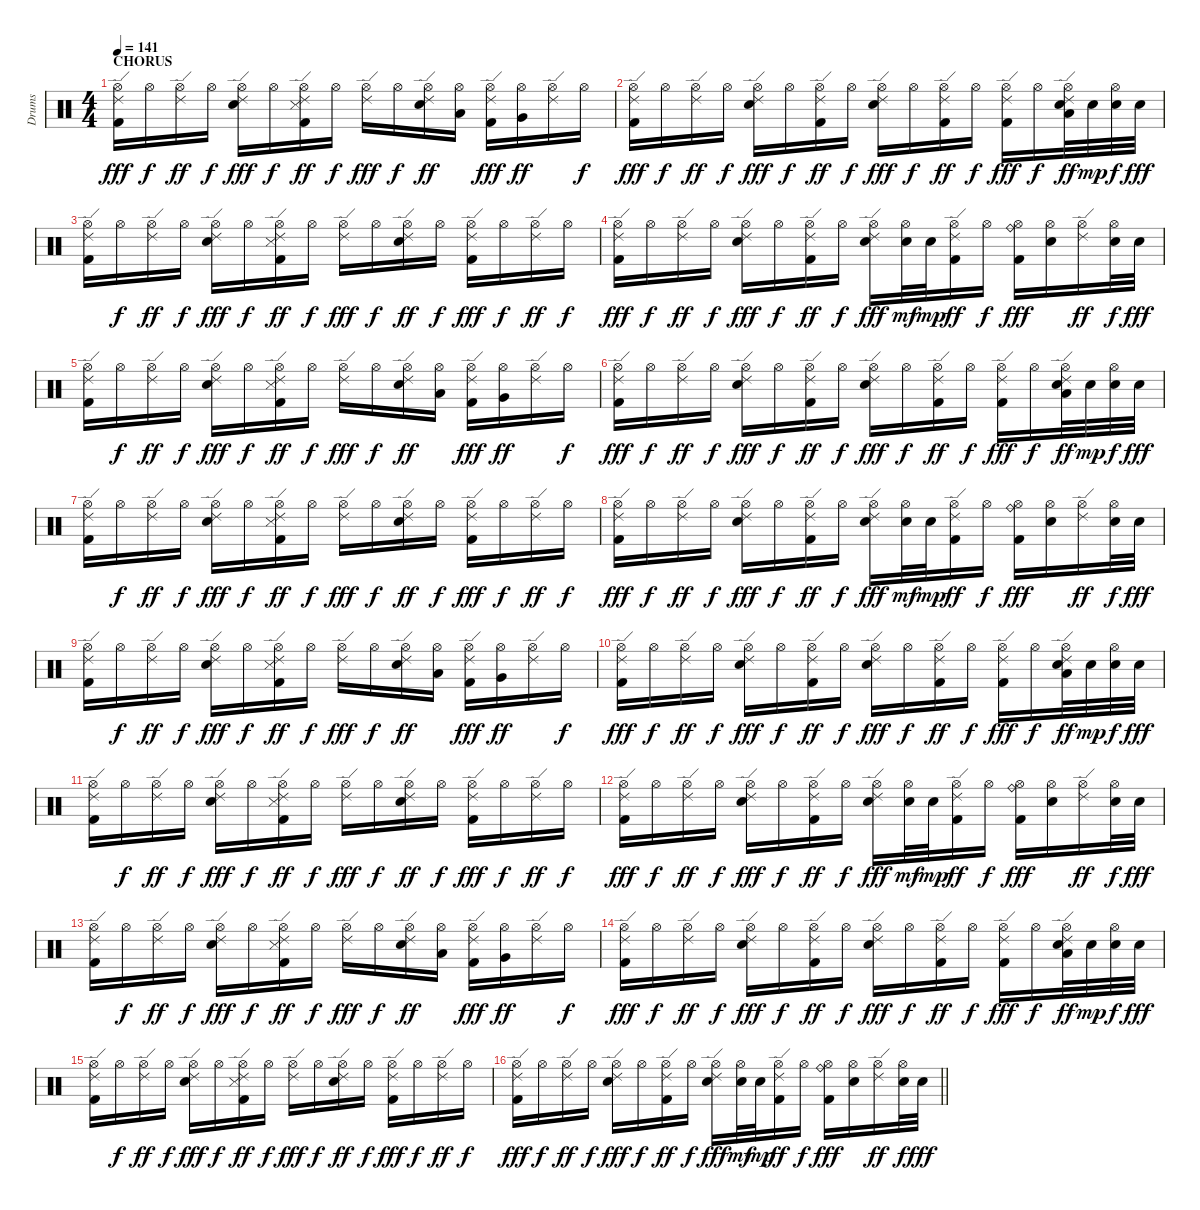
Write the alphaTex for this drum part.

\track ("Drums" "Drums") {instrument percussion}
\staff {score}
\articulation defaults
\ts (4 4)
\section ("" "CHORUS")
\tempo 141
\clef neutral
\ks c
("Kick (hit) 2" "Hi-Hat (open)" "Ride (edge) 2").16{dy fff} "Hi-Hat (open)".16{dy f} ("Hi-Hat (open)" "Ride (edge) 2").16{dy ff} "Hi-Hat (open)".16{dy f} ("Snare (hit) 2" "Hi-Hat (open)" "Ride (edge) 2").16{dy fff} "Hi-Hat (open)".16{dy f} ("Kick (hit) 2" "Snare (side stick) 3" "Hi-Hat (open)" "Ride (edge) 2").16{dy ff} "Hi-Hat (open)".16{dy f} ("Hi-Hat (open)" "Ride (edge) 2").16{dy fff} "Hi-Hat (open)".16{dy f} ("Snare (hit) 2" "Hi-Hat (open)" "Ride (edge) 2").16{dy ff} ("Hi-Hat (open)" "Low Floor Tom (hit)").16 ("Kick (hit) 2" "Hi-Hat (open)" "Ride (edge) 2").16{dy fff} ("Hi-Hat (open)" "Very Low Tom (hit)").16{dy ff} ("Hi-Hat (open)" "Ride (edge) 2").16 "Hi-Hat (open)".16{dy f} |
("Kick (hit) 2" "Hi-Hat (open)" "Ride (edge) 2").16{dy fff} "Hi-Hat (open)".16{dy f} ("Hi-Hat (open)" "Ride (edge) 2").16{dy ff} "Hi-Hat (open)".16{dy f} ("Snare (hit) 2" "Hi-Hat (open)" "Ride (edge) 2").16{dy fff} "Hi-Hat (open)".16{dy f} ("Kick (hit) 2" "Hi-Hat (open)" "Ride (edge) 2").16{dy ff} "Hi-Hat (open)".16{dy f} ("Snare (hit) 2" "Hi-Hat (open)" "Ride (edge) 2").16{dy fff} "Hi-Hat (open)".16{dy f} ("Kick (hit) 2" "Hi-Hat (open)" "Ride (edge) 2").16{dy ff} "Hi-Hat (open)".16{dy f} ("Kick (hit) 2" "Hi-Hat (open)" "Ride (edge) 2").16{dy fff} "Hi-Hat (open)".16{dy f} ("Snare (hit) 2" "Hi-Hat (open)" "Ride (edge) 2" "Low Tom (hit)").32{dy ff} "Snare (hit) 2".32{dy mp} ("Snare (hit) 2" "Hi-Hat (open)").32{dy f} "Snare (hit) 2".32{dy fff} |
("Kick (hit) 2" "Hi-Hat (open)" "Ride (edge) 2").16 "Hi-Hat (open)".16{dy f} ("Hi-Hat (open)" "Ride (edge) 2").16{dy ff} "Hi-Hat (open)".16{dy f} ("Snare (hit) 2" "Hi-Hat (open)" "Ride (edge) 2").16{dy fff} "Hi-Hat (open)".16{dy f} ("Kick (hit) 2" "Snare (side stick) 3" "Hi-Hat (open)" "Ride (edge) 2").16{dy ff} "Hi-Hat (open)".16{dy f} ("Hi-Hat (open)" "Ride (edge) 2").16{dy fff} "Hi-Hat (open)".16{dy f} ("Snare (hit) 2" "Hi-Hat (open)" "Ride (edge) 2").16{dy ff} "Hi-Hat (open)".16{dy f} ("Kick (hit) 2" "Hi-Hat (open)" "Ride (edge) 2").16{dy fff} "Hi-Hat (open)".16{dy f} ("Hi-Hat (open)" "Ride (edge) 2").16{dy ff} "Hi-Hat (open)".16{dy f} |
("Kick (hit) 2" "Hi-Hat (open)" "Ride (edge) 2").16{dy fff} "Hi-Hat (open)".16{dy f} ("Hi-Hat (open)" "Ride (edge) 2").16{dy ff} "Hi-Hat (open)".16{dy f} ("Snare (hit) 2" "Hi-Hat (open)" "Ride (edge) 2").16{dy fff} "Hi-Hat (open)".16{dy f} ("Kick (hit) 2" "Hi-Hat (open)" "Ride (edge) 2").16{dy ff} "Hi-Hat (open)".16{dy f} ("Snare (hit) 2" "Hi-Hat (open)" "Ride (edge) 2").16{dy fff} ("Snare (hit) 2" "Hi-Hat (open)").32{dy mf} "Snare (hit) 2".32{dy mp} ("Kick (hit) 2" "Hi-Hat (open)" "Ride (edge) 2").16{dy ff} "Hi-Hat (open)".16{dy f} ("Kick (hit) 2" "Hi-Hat (open)" "Ride (bell)").16{dy fff} ("Snare (hit) 2" "Hi-Hat (open)").16 ("Hi-Hat (open)" "Ride (edge) 2").16{dy ff} ("Snare (hit) 2" "Hi-Hat (open)").32{dy f} "Snare (hit) 2".32{dy fff} |
("Kick (hit) 2" "Hi-Hat (open)" "Ride (edge) 2").16 "Hi-Hat (open)".16{dy f} ("Hi-Hat (open)" "Ride (edge) 2").16{dy ff} "Hi-Hat (open)".16{dy f} ("Snare (hit) 2" "Hi-Hat (open)" "Ride (edge) 2").16{dy fff} "Hi-Hat (open)".16{dy f} ("Kick (hit) 2" "Snare (side stick) 3" "Hi-Hat (open)" "Ride (edge) 2").16{dy ff} "Hi-Hat (open)".16{dy f} ("Hi-Hat (open)" "Ride (edge) 2").16{dy fff} "Hi-Hat (open)".16{dy f} ("Snare (hit) 2" "Hi-Hat (open)" "Ride (edge) 2").16{dy ff} ("Hi-Hat (open)" "Low Floor Tom (hit)").16 ("Kick (hit) 2" "Hi-Hat (open)" "Ride (edge) 2").16{dy fff} ("Hi-Hat (open)" "Very Low Tom (hit)").16{dy ff} ("Hi-Hat (open)" "Ride (edge) 2").16 "Hi-Hat (open)".16{dy f} |
("Kick (hit) 2" "Hi-Hat (open)" "Ride (edge) 2").16{dy fff} "Hi-Hat (open)".16{dy f} ("Hi-Hat (open)" "Ride (edge) 2").16{dy ff} "Hi-Hat (open)".16{dy f} ("Snare (hit) 2" "Hi-Hat (open)" "Ride (edge) 2").16{dy fff} "Hi-Hat (open)".16{dy f} ("Kick (hit) 2" "Hi-Hat (open)" "Ride (edge) 2").16{dy ff} "Hi-Hat (open)".16{dy f} ("Snare (hit) 2" "Hi-Hat (open)" "Ride (edge) 2").16{dy fff} "Hi-Hat (open)".16{dy f} ("Kick (hit) 2" "Hi-Hat (open)" "Ride (edge) 2").16{dy ff} "Hi-Hat (open)".16{dy f} ("Kick (hit) 2" "Hi-Hat (open)" "Ride (edge) 2").16{dy fff} "Hi-Hat (open)".16{dy f} ("Snare (hit) 2" "Hi-Hat (open)" "Ride (edge) 2" "Low Tom (hit)").32{dy ff} "Snare (hit) 2".32{dy mp} ("Snare (hit) 2" "Hi-Hat (open)").32{dy f} "Snare (hit) 2".32{dy fff} |
("Kick (hit) 2" "Hi-Hat (open)" "Ride (edge) 2").16 "Hi-Hat (open)".16{dy f} ("Hi-Hat (open)" "Ride (edge) 2").16{dy ff} "Hi-Hat (open)".16{dy f} ("Snare (hit) 2" "Hi-Hat (open)" "Ride (edge) 2").16{dy fff} "Hi-Hat (open)".16{dy f} ("Kick (hit) 2" "Snare (side stick) 3" "Hi-Hat (open)" "Ride (edge) 2").16{dy ff} "Hi-Hat (open)".16{dy f} ("Hi-Hat (open)" "Ride (edge) 2").16{dy fff} "Hi-Hat (open)".16{dy f} ("Snare (hit) 2" "Hi-Hat (open)" "Ride (edge) 2").16{dy ff} "Hi-Hat (open)".16{dy f} ("Kick (hit) 2" "Hi-Hat (open)" "Ride (edge) 2").16{dy fff} "Hi-Hat (open)".16{dy f} ("Hi-Hat (open)" "Ride (edge) 2").16{dy ff} "Hi-Hat (open)".16{dy f} |
("Kick (hit) 2" "Hi-Hat (open)" "Ride (edge) 2").16{dy fff} "Hi-Hat (open)".16{dy f} ("Hi-Hat (open)" "Ride (edge) 2").16{dy ff} "Hi-Hat (open)".16{dy f} ("Snare (hit) 2" "Hi-Hat (open)" "Ride (edge) 2").16{dy fff} "Hi-Hat (open)".16{dy f} ("Kick (hit) 2" "Hi-Hat (open)" "Ride (edge) 2").16{dy ff} "Hi-Hat (open)".16{dy f} ("Snare (hit) 2" "Hi-Hat (open)" "Ride (edge) 2").16{dy fff} ("Snare (hit) 2" "Hi-Hat (open)").32{dy mf} "Snare (hit) 2".32{dy mp} ("Kick (hit) 2" "Hi-Hat (open)" "Ride (edge) 2").16{dy ff} "Hi-Hat (open)".16{dy f} ("Kick (hit) 2" "Hi-Hat (open)" "Ride (bell)").16{dy fff} ("Snare (hit) 2" "Hi-Hat (open)").16 ("Hi-Hat (open)" "Ride (edge) 2").16{dy ff} ("Snare (hit) 2" "Hi-Hat (open)").32{dy f} "Snare (hit) 2".32{dy fff} |
("Kick (hit) 2" "Hi-Hat (open)" "Ride (edge) 2").16 "Hi-Hat (open)".16{dy f} ("Hi-Hat (open)" "Ride (edge) 2").16{dy ff} "Hi-Hat (open)".16{dy f} ("Snare (hit) 2" "Hi-Hat (open)" "Ride (edge) 2").16{dy fff} "Hi-Hat (open)".16{dy f} ("Kick (hit) 2" "Snare (side stick) 3" "Hi-Hat (open)" "Ride (edge) 2").16{dy ff} "Hi-Hat (open)".16{dy f} ("Hi-Hat (open)" "Ride (edge) 2").16{dy fff} "Hi-Hat (open)".16{dy f} ("Snare (hit) 2" "Hi-Hat (open)" "Ride (edge) 2").16{dy ff} ("Hi-Hat (open)" "Low Floor Tom (hit)").16 ("Kick (hit) 2" "Hi-Hat (open)" "Ride (edge) 2").16{dy fff} ("Hi-Hat (open)" "Very Low Tom (hit)").16{dy ff} ("Hi-Hat (open)" "Ride (edge) 2").16 "Hi-Hat (open)".16{dy f} |
("Kick (hit) 2" "Hi-Hat (open)" "Ride (edge) 2").16{dy fff} "Hi-Hat (open)".16{dy f} ("Hi-Hat (open)" "Ride (edge) 2").16{dy ff} "Hi-Hat (open)".16{dy f} ("Snare (hit) 2" "Hi-Hat (open)" "Ride (edge) 2").16{dy fff} "Hi-Hat (open)".16{dy f} ("Kick (hit) 2" "Hi-Hat (open)" "Ride (edge) 2").16{dy ff} "Hi-Hat (open)".16{dy f} ("Snare (hit) 2" "Hi-Hat (open)" "Ride (edge) 2").16{dy fff} "Hi-Hat (open)".16{dy f} ("Kick (hit) 2" "Hi-Hat (open)" "Ride (edge) 2").16{dy ff} "Hi-Hat (open)".16{dy f} ("Kick (hit) 2" "Hi-Hat (open)" "Ride (edge) 2").16{dy fff} "Hi-Hat (open)".16{dy f} ("Snare (hit) 2" "Hi-Hat (open)" "Ride (edge) 2" "Low Tom (hit)").32{dy ff} "Snare (hit) 2".32{dy mp} ("Snare (hit) 2" "Hi-Hat (open)").32{dy f} "Snare (hit) 2".32{dy fff} |
("Kick (hit) 2" "Hi-Hat (open)" "Ride (edge) 2").16 "Hi-Hat (open)".16{dy f} ("Hi-Hat (open)" "Ride (edge) 2").16{dy ff} "Hi-Hat (open)".16{dy f} ("Snare (hit) 2" "Hi-Hat (open)" "Ride (edge) 2").16{dy fff} "Hi-Hat (open)".16{dy f} ("Kick (hit) 2" "Snare (side stick) 3" "Hi-Hat (open)" "Ride (edge) 2").16{dy ff} "Hi-Hat (open)".16{dy f} ("Hi-Hat (open)" "Ride (edge) 2").16{dy fff} "Hi-Hat (open)".16{dy f} ("Snare (hit) 2" "Hi-Hat (open)" "Ride (edge) 2").16{dy ff} "Hi-Hat (open)".16{dy f} ("Kick (hit) 2" "Hi-Hat (open)" "Ride (edge) 2").16{dy fff} "Hi-Hat (open)".16{dy f} ("Hi-Hat (open)" "Ride (edge) 2").16{dy ff} "Hi-Hat (open)".16{dy f} |
("Kick (hit) 2" "Hi-Hat (open)" "Ride (edge) 2").16{dy fff} "Hi-Hat (open)".16{dy f} ("Hi-Hat (open)" "Ride (edge) 2").16{dy ff} "Hi-Hat (open)".16{dy f} ("Snare (hit) 2" "Hi-Hat (open)" "Ride (edge) 2").16{dy fff} "Hi-Hat (open)".16{dy f} ("Kick (hit) 2" "Hi-Hat (open)" "Ride (edge) 2").16{dy ff} "Hi-Hat (open)".16{dy f} ("Snare (hit) 2" "Hi-Hat (open)" "Ride (edge) 2").16{dy fff} ("Snare (hit) 2" "Hi-Hat (open)").32{dy mf} "Snare (hit) 2".32{dy mp} ("Kick (hit) 2" "Hi-Hat (open)" "Ride (edge) 2").16{dy ff} "Hi-Hat (open)".16{dy f} ("Kick (hit) 2" "Hi-Hat (open)" "Ride (bell)").16{dy fff} ("Snare (hit) 2" "Hi-Hat (open)").16 ("Hi-Hat (open)" "Ride (edge) 2").16{dy ff} ("Snare (hit) 2" "Hi-Hat (open)").32{dy f} "Snare (hit) 2".32{dy fff} |
("Kick (hit) 2" "Hi-Hat (open)" "Ride (edge) 2").16 "Hi-Hat (open)".16{dy f} ("Hi-Hat (open)" "Ride (edge) 2").16{dy ff} "Hi-Hat (open)".16{dy f} ("Snare (hit) 2" "Hi-Hat (open)" "Ride (edge) 2").16{dy fff} "Hi-Hat (open)".16{dy f} ("Kick (hit) 2" "Snare (side stick) 3" "Hi-Hat (open)" "Ride (edge) 2").16{dy ff} "Hi-Hat (open)".16{dy f} ("Hi-Hat (open)" "Ride (edge) 2").16{dy fff} "Hi-Hat (open)".16{dy f} ("Snare (hit) 2" "Hi-Hat (open)" "Ride (edge) 2").16{dy ff} ("Hi-Hat (open)" "Low Floor Tom (hit)").16 ("Kick (hit) 2" "Hi-Hat (open)" "Ride (edge) 2").16{dy fff} ("Hi-Hat (open)" "Very Low Tom (hit)").16{dy ff} ("Hi-Hat (open)" "Ride (edge) 2").16 "Hi-Hat (open)".16{dy f} |
("Kick (hit) 2" "Hi-Hat (open)" "Ride (edge) 2").16{dy fff} "Hi-Hat (open)".16{dy f} ("Hi-Hat (open)" "Ride (edge) 2").16{dy ff} "Hi-Hat (open)".16{dy f} ("Snare (hit) 2" "Hi-Hat (open)" "Ride (edge) 2").16{dy fff} "Hi-Hat (open)".16{dy f} ("Kick (hit) 2" "Hi-Hat (open)" "Ride (edge) 2").16{dy ff} "Hi-Hat (open)".16{dy f} ("Snare (hit) 2" "Hi-Hat (open)" "Ride (edge) 2").16{dy fff} "Hi-Hat (open)".16{dy f} ("Kick (hit) 2" "Hi-Hat (open)" "Ride (edge) 2").16{dy ff} "Hi-Hat (open)".16{dy f} ("Kick (hit) 2" "Hi-Hat (open)" "Ride (edge) 2").16{dy fff} "Hi-Hat (open)".16{dy f} ("Snare (hit) 2" "Hi-Hat (open)" "Ride (edge) 2" "Low Tom (hit)").32{dy ff} "Snare (hit) 2".32{dy mp} ("Snare (hit) 2" "Hi-Hat (open)").32{dy f} "Snare (hit) 2".32{dy fff} |
("Kick (hit) 2" "Hi-Hat (open)" "Ride (edge) 2").16 "Hi-Hat (open)".16{dy f} ("Hi-Hat (open)" "Ride (edge) 2").16{dy ff} "Hi-Hat (open)".16{dy f} ("Snare (hit) 2" "Hi-Hat (open)" "Ride (edge) 2").16{dy fff} "Hi-Hat (open)".16{dy f} ("Kick (hit) 2" "Snare (side stick) 3" "Hi-Hat (open)" "Ride (edge) 2").16{dy ff} "Hi-Hat (open)".16{dy f} ("Hi-Hat (open)" "Ride (edge) 2").16{dy fff} "Hi-Hat (open)".16{dy f} ("Snare (hit) 2" "Hi-Hat (open)" "Ride (edge) 2").16{dy ff} "Hi-Hat (open)".16{dy f} ("Kick (hit) 2" "Hi-Hat (open)" "Ride (edge) 2").16{dy fff} "Hi-Hat (open)".16{dy f} ("Hi-Hat (open)" "Ride (edge) 2").16{dy ff} "Hi-Hat (open)".16{dy f} |
\barLineRight lightlight
("Kick (hit) 2" "Hi-Hat (open)" "Ride (edge) 2").16{dy fff} "Hi-Hat (open)".16{dy f} ("Hi-Hat (open)" "Ride (edge) 2").16{dy ff} "Hi-Hat (open)".16{dy f} ("Snare (hit) 2" "Hi-Hat (open)" "Ride (edge) 2").16{dy fff} "Hi-Hat (open)".16{dy f} ("Kick (hit) 2" "Hi-Hat (open)" "Ride (edge) 2").16{dy ff} "Hi-Hat (open)".16{dy f} ("Snare (hit) 2" "Hi-Hat (open)" "Ride (edge) 2").16{dy fff} ("Snare (hit) 2" "Hi-Hat (open)").32{dy mf} "Snare (hit) 2".32{dy mp} ("Kick (hit) 2" "Hi-Hat (open)" "Ride (edge) 2").16{dy ff} "Hi-Hat (open)".16{dy f} ("Kick (hit) 2" "Hi-Hat (open)" "Ride (bell)").16{dy fff} ("Snare (hit) 2" "Hi-Hat (open)").16 ("Hi-Hat (open)" "Ride (edge) 2").16{dy ff} ("Snare (hit) 2" "Hi-Hat (open)").32{dy f} "Snare (hit) 2".32{dy fff}
